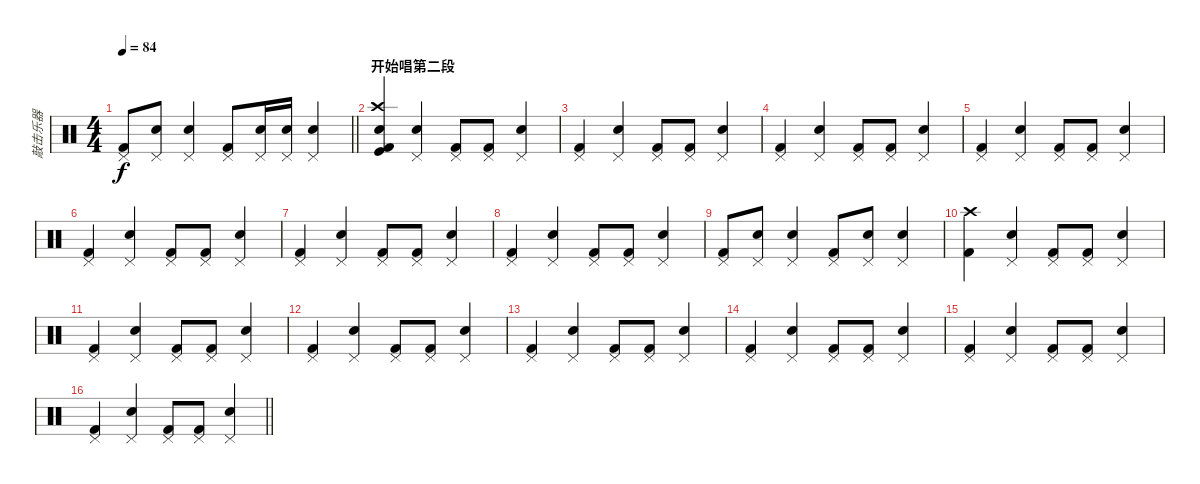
\track ("敲击乐器" "敲击乐器") {instrument percussion}
\staff {score}
\articulation defaults
\ts (4 4)
\tempo 84
\clef neutral
\barLineRight lightlight
\ks c
("Kick (hit) 2" "Pedal Hi-Hat (hit)").8{dy f} ("Snare (hit) 2" "Pedal Hi-Hat (hit)").8 ("Snare (hit) 2" "Pedal Hi-Hat (hit)").4 ("Kick (hit) 2" "Pedal Hi-Hat (hit)").8 ("Snare (hit) 2" "Pedal Hi-Hat (hit)").16 ("Snare (hit) 2" "Pedal Hi-Hat (hit)").16 ("Snare (hit) 2" "Pedal Hi-Hat (hit)").4 |
\section ("" "开始唱第二段")
("Kick (hit) 2" "Crash high (hit)" "Kick (hit)" "Metronome (bell)").4 ("Snare (hit) 2" "Pedal Hi-Hat (hit)").4 ("Kick (hit) 2" "Pedal Hi-Hat (hit)").8 ("Kick (hit) 2" "Pedal Hi-Hat (hit)").8 ("Snare (hit) 2" "Pedal Hi-Hat (hit)").4 |
("Kick (hit) 2" "Pedal Hi-Hat (hit)").4 ("Snare (hit) 2" "Pedal Hi-Hat (hit)").4 ("Kick (hit) 2" "Pedal Hi-Hat (hit)").8 ("Kick (hit) 2" "Pedal Hi-Hat (hit)").8 ("Snare (hit) 2" "Pedal Hi-Hat (hit)").4 |
("Kick (hit) 2" "Pedal Hi-Hat (hit)").4 ("Snare (hit) 2" "Pedal Hi-Hat (hit)").4 ("Kick (hit) 2" "Pedal Hi-Hat (hit)").8 ("Kick (hit) 2" "Pedal Hi-Hat (hit)").8 ("Snare (hit) 2" "Pedal Hi-Hat (hit)").4 |
("Kick (hit) 2" "Pedal Hi-Hat (hit)").4 ("Snare (hit) 2" "Pedal Hi-Hat (hit)").4 ("Kick (hit) 2" "Pedal Hi-Hat (hit)").8 ("Kick (hit) 2" "Pedal Hi-Hat (hit)").8 ("Snare (hit) 2" "Pedal Hi-Hat (hit)").4 |
("Kick (hit) 2" "Pedal Hi-Hat (hit)").4 ("Snare (hit) 2" "Pedal Hi-Hat (hit)").4 ("Kick (hit) 2" "Pedal Hi-Hat (hit)").8 ("Kick (hit) 2" "Pedal Hi-Hat (hit)").8 ("Snare (hit) 2" "Pedal Hi-Hat (hit)").4 |
("Kick (hit) 2" "Pedal Hi-Hat (hit)").4 ("Snare (hit) 2" "Pedal Hi-Hat (hit)").4 ("Kick (hit) 2" "Pedal Hi-Hat (hit)").8 ("Kick (hit) 2" "Pedal Hi-Hat (hit)").8 ("Snare (hit) 2" "Pedal Hi-Hat (hit)").4 |
("Kick (hit) 2" "Pedal Hi-Hat (hit)").4 ("Snare (hit) 2" "Pedal Hi-Hat (hit)").4 ("Kick (hit) 2" "Pedal Hi-Hat (hit)").8 ("Kick (hit) 2" "Pedal Hi-Hat (hit)").8 ("Snare (hit) 2" "Pedal Hi-Hat (hit)").4 |
("Kick (hit) 2" "Pedal Hi-Hat (hit)").8 ("Snare (hit) 2" "Pedal Hi-Hat (hit)").8 ("Snare (hit) 2" "Pedal Hi-Hat (hit)").4 ("Kick (hit) 2" "Pedal Hi-Hat (hit)").8 ("Snare (hit) 2" "Pedal Hi-Hat (hit)").8 ("Snare (hit) 2" "Pedal Hi-Hat (hit)").4 |
("Kick (hit) 2" "Crash high (hit)").4 ("Snare (hit) 2" "Pedal Hi-Hat (hit)").4 ("Kick (hit) 2" "Pedal Hi-Hat (hit)").8 ("Kick (hit) 2" "Pedal Hi-Hat (hit)").8 ("Snare (hit) 2" "Pedal Hi-Hat (hit)").4 |
("Kick (hit) 2" "Pedal Hi-Hat (hit)").4 ("Snare (hit) 2" "Pedal Hi-Hat (hit)").4 ("Kick (hit) 2" "Pedal Hi-Hat (hit)").8 ("Kick (hit) 2" "Pedal Hi-Hat (hit)").8 ("Snare (hit) 2" "Pedal Hi-Hat (hit)").4 |
("Kick (hit) 2" "Pedal Hi-Hat (hit)").4 ("Snare (hit) 2" "Pedal Hi-Hat (hit)").4 ("Kick (hit) 2" "Pedal Hi-Hat (hit)").8 ("Kick (hit) 2" "Pedal Hi-Hat (hit)").8 ("Snare (hit) 2" "Pedal Hi-Hat (hit)").4 |
("Kick (hit) 2" "Pedal Hi-Hat (hit)").4 ("Snare (hit) 2" "Pedal Hi-Hat (hit)").4 ("Kick (hit) 2" "Pedal Hi-Hat (hit)").8 ("Kick (hit) 2" "Pedal Hi-Hat (hit)").8 ("Snare (hit) 2" "Pedal Hi-Hat (hit)").4 |
("Kick (hit) 2" "Pedal Hi-Hat (hit)").4 ("Snare (hit) 2" "Pedal Hi-Hat (hit)").4 ("Kick (hit) 2" "Pedal Hi-Hat (hit)").8 ("Kick (hit) 2" "Pedal Hi-Hat (hit)").8 ("Snare (hit) 2" "Pedal Hi-Hat (hit)").4 |
("Kick (hit) 2" "Pedal Hi-Hat (hit)").4 ("Snare (hit) 2" "Pedal Hi-Hat (hit)").4 ("Kick (hit) 2" "Pedal Hi-Hat (hit)").8 ("Kick (hit) 2" "Pedal Hi-Hat (hit)").8 ("Snare (hit) 2" "Pedal Hi-Hat (hit)").4 |
\barLineRight lightlight
("Kick (hit) 2" "Pedal Hi-Hat (hit)").4 ("Snare (hit) 2" "Pedal Hi-Hat (hit)").4 ("Kick (hit) 2" "Pedal Hi-Hat (hit)").8 ("Kick (hit) 2" "Pedal Hi-Hat (hit)").8 ("Snare (hit) 2" "Pedal Hi-Hat (hit)").4
